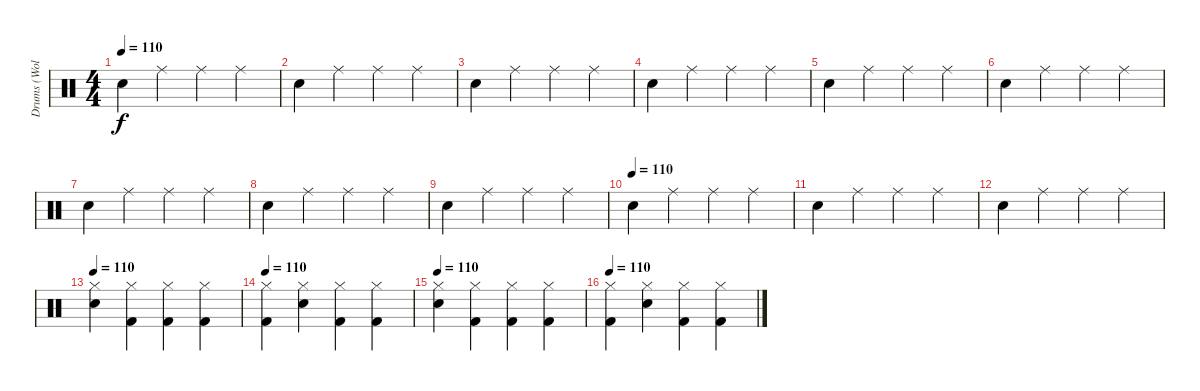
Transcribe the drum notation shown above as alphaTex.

\track ("Drums (Wolf Simons)" "Drums (Wol") {instrument percussion}
\staff {score}
\articulation defaults
\ts (4 4)
\tempo 110
\clef neutral
\ks c "Snare (hit) 2".4{dy f} "Ride (middle)".4 "Ride (middle)".4 "Ride (middle)".4
|
"Snare (hit) 2".4 "Ride (middle)".4 "Ride (middle)".4 "Ride (middle)".4 |
"Snare (hit) 2".4 "Ride (middle)".4 "Ride (middle)".4 "Ride (middle)".4 |
"Snare (hit) 2".4 "Ride (middle)".4 "Ride (middle)".4 "Ride (middle)".4 |
"Snare (hit) 2".4 "Ride (middle)".4 "Ride (middle)".4 "Ride (middle)".4 |
"Snare (hit) 2".4 "Ride (middle)".4 "Ride (middle)".4 "Ride (middle)".4 |
"Snare (hit) 2".4 "Ride (middle)".4 "Ride (middle)".4 "Ride (middle)".4 |
"Snare (hit) 2".4 "Ride (middle)".4 "Ride (middle)".4 "Ride (middle)".4 |
"Snare (hit) 2".4 "Ride (middle)".4 "Ride (middle)".4 "Ride (middle)".4 |
\tempo (110)
"Snare (hit) 2".4 "Ride (middle)".4 "Ride (middle)".4 "Ride (middle)".4 |
"Snare (hit) 2".4 "Ride (middle)".4 "Ride (middle)".4 "Ride (middle)".4 |
"Snare (hit) 2".4 "Ride (middle)".4 "Ride (middle)".4 "Ride (middle)".4 |
\tempo 110
("Hi-Hat (closed)" "Electric Snare (hit)").4 ("Hi-Hat (closed)" "Kick (hit) 2").4 ("Hi-Hat (closed)" "Kick (hit) 2").4 ("Hi-Hat (closed)" "Kick (hit) 2").4 |
\tempo 110
("Hi-Hat (closed)" "Kick (hit) 2").4 ("Hi-Hat (closed)" "Electric Snare (hit)").4 ("Hi-Hat (closed)" "Kick (hit) 2").4 ("Hi-Hat (closed)" "Kick (hit) 2").4 |
\tempo 110
("Hi-Hat (closed)" "Electric Snare (hit)").4 ("Hi-Hat (closed)" "Kick (hit) 2").4 ("Hi-Hat (closed)" "Kick (hit) 2").4 ("Hi-Hat (closed)" "Kick (hit) 2").4 |
\tempo 110
("Hi-Hat (closed)" "Kick (hit) 2").4 ("Hi-Hat (closed)" "Electric Snare (hit)").4 ("Hi-Hat (closed)" "Kick (hit) 2").4 ("Hi-Hat (closed)" "Kick (hit) 2").4
